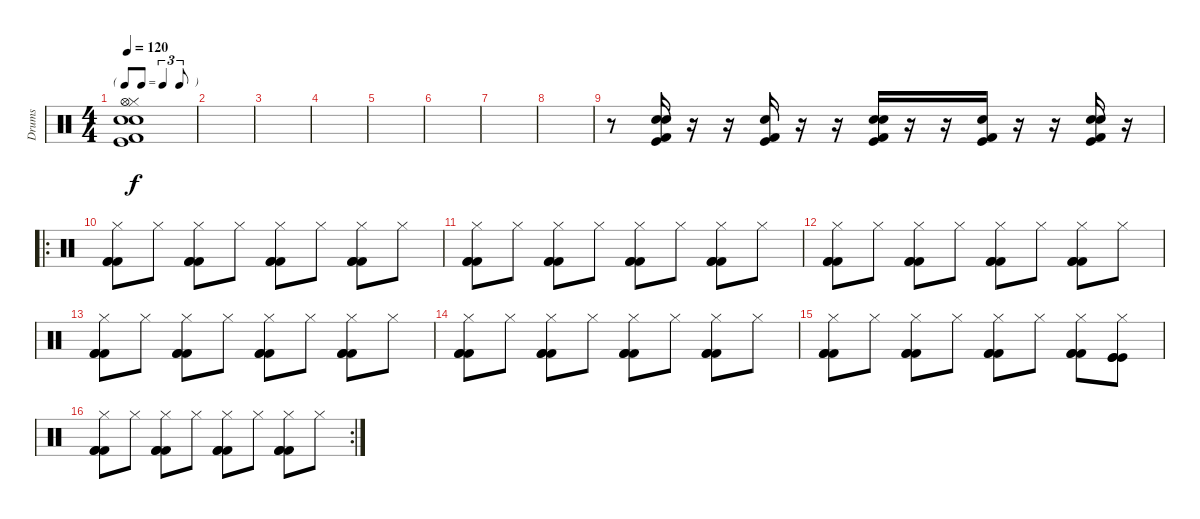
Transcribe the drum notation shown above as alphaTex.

\track ("Drums" "Drums") {instrument percussion}
\staff {score}
\articulation defaults
\ts (4 4)
\tf triplet8th
\tempo 120
\clef neutral
\ks c
("Hi-Hat (closed)" "Snare (hit) 2" "Electric Snare (hit)" "Kick (hit)" "Kick (hit) 2" "Hi-Hat (open)").1{dy f} |
|
|
|
|
|
|
|
r.8 ("Snare (hit) 2" "Electric Snare (hit)" "Kick (hit)" "Kick (hit) 2").16{balance 16} r.16 r.16 ("Electric Snare (hit)" "Kick (hit)" "Kick (hit) 2").16{balance 0} r.16 r.16 ("Snare (hit) 2" "Electric Snare (hit)" "Kick (hit)" "Kick (hit) 2").16{balance 16} r.16 r.16 ("Electric Snare (hit)" "Kick (hit)" "Kick (hit) 2").16{balance 0} r.16 r.16 ("Snare (hit) 2" "Electric Snare (hit)" "Kick (hit)" "Kick (hit) 2").16{balance 8} r.16 |
\ro
("Hi-Hat (closed)" "Kick (hit) 2" "Kick (hit) 2" "Kick (hit) 2").8 "Hi-Hat (closed)".8 ("Hi-Hat (closed)" "Kick (hit) 2" "Kick (hit) 2" "Kick (hit) 2").8 "Hi-Hat (closed)".8 ("Hi-Hat (closed)" "Kick (hit) 2" "Kick (hit) 2" "Kick (hit) 2").8 "Hi-Hat (closed)".8 ("Hi-Hat (closed)" "Kick (hit) 2" "Kick (hit) 2" "Kick (hit) 2").8 "Hi-Hat (closed)".8 |
("Hi-Hat (closed)" "Kick (hit) 2" "Kick (hit) 2" "Kick (hit) 2").8 "Hi-Hat (closed)".8 ("Hi-Hat (closed)" "Kick (hit) 2" "Kick (hit) 2" "Kick (hit) 2").8 "Hi-Hat (closed)".8 ("Hi-Hat (closed)" "Kick (hit) 2" "Kick (hit) 2" "Kick (hit) 2").8 "Hi-Hat (closed)".8 ("Hi-Hat (closed)" "Kick (hit) 2" "Kick (hit) 2" "Kick (hit) 2").8 "Hi-Hat (closed)".8 |
("Hi-Hat (closed)" "Kick (hit) 2" "Kick (hit) 2" "Kick (hit) 2").8 "Hi-Hat (closed)".8 ("Hi-Hat (closed)" "Kick (hit) 2" "Kick (hit) 2" "Kick (hit) 2").8 "Hi-Hat (closed)".8 ("Hi-Hat (closed)" "Kick (hit) 2" "Kick (hit) 2" "Kick (hit) 2").8 "Hi-Hat (closed)".8 ("Hi-Hat (closed)" "Kick (hit) 2" "Kick (hit) 2" "Kick (hit) 2").8 "Hi-Hat (closed)".8 |
("Hi-Hat (closed)" "Kick (hit) 2" "Kick (hit) 2" "Kick (hit) 2").8 "Hi-Hat (closed)".8 ("Hi-Hat (closed)" "Kick (hit) 2" "Kick (hit) 2" "Kick (hit) 2").8 "Hi-Hat (closed)".8 ("Hi-Hat (closed)" "Kick (hit) 2" "Kick (hit) 2" "Kick (hit) 2").8 "Hi-Hat (closed)".8 ("Hi-Hat (closed)" "Kick (hit) 2" "Kick (hit) 2" "Kick (hit) 2").8 "Hi-Hat (closed)".8 |
("Hi-Hat (closed)" "Kick (hit) 2" "Kick (hit) 2" "Kick (hit) 2").8 "Hi-Hat (closed)".8 ("Hi-Hat (closed)" "Kick (hit) 2" "Kick (hit) 2" "Kick (hit) 2").8 "Hi-Hat (closed)".8 ("Hi-Hat (closed)" "Kick (hit) 2" "Kick (hit) 2" "Kick (hit) 2").8 "Hi-Hat (closed)".8 ("Hi-Hat (closed)" "Kick (hit) 2" "Kick (hit) 2" "Kick (hit) 2").8 "Hi-Hat (closed)".8 |
("Hi-Hat (closed)" "Kick (hit) 2" "Kick (hit) 2" "Kick (hit) 2").8 "Hi-Hat (closed)".8 ("Hi-Hat (closed)" "Kick (hit) 2" "Kick (hit) 2" "Kick (hit) 2").8 "Hi-Hat (closed)".8 ("Hi-Hat (closed)" "Kick (hit) 2" "Kick (hit) 2" "Kick (hit) 2").8 "Hi-Hat (closed)".8 ("Hi-Hat (closed)" "Kick (hit) 2" "Kick (hit) 2" "Kick (hit) 2").8 ("Hi-Hat (closed)" "Kick (hit)" "Kick (hit)" "Kick (hit)").8 |
\rc 2
("Hi-Hat (closed)" "Kick (hit) 2" "Kick (hit) 2" "Kick (hit) 2").8 "Hi-Hat (closed)".8 ("Hi-Hat (closed)" "Kick (hit) 2" "Kick (hit) 2" "Kick (hit) 2").8 "Hi-Hat (closed)".8 ("Hi-Hat (closed)" "Kick (hit) 2" "Kick (hit) 2" "Kick (hit) 2").8 "Hi-Hat (closed)".8 ("Hi-Hat (closed)" "Kick (hit) 2" "Kick (hit) 2" "Kick (hit) 2").8 "Hi-Hat (closed)".8
